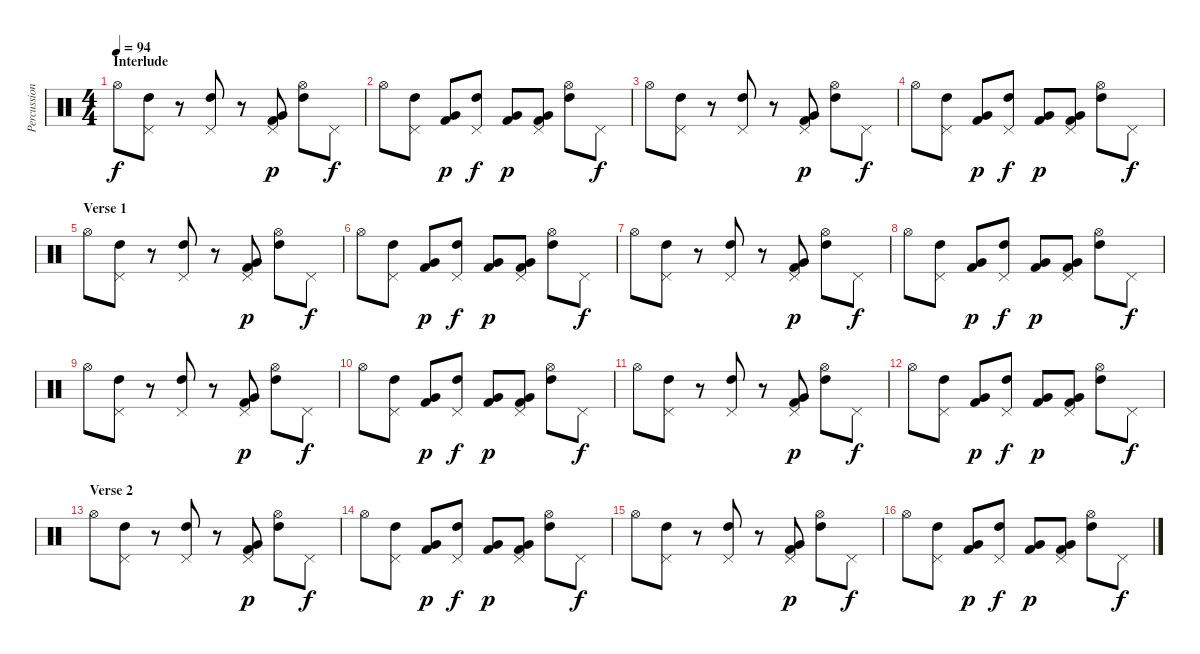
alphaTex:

\track ("Percussion" "Percussion") {instrument percussion}
\staff {score}
\articulation defaults
\ts (4 4)
\section ("" "Interlude")
\tempo 94
\clef neutral
\ks c "Hi-Hat (open)".8{dy f}
("Pedal Hi-Hat (hit)" "High Tom (hit)").8 r.8 ("Pedal Hi-Hat (hit)" "High Tom (hit)").8 r.8 ("Pedal Hi-Hat (hit)" "Very Low Tom (hit)" "Kick (hit) 2").8{dy p} ("Hi-Hat (open)" "High Tom (hit)").8 "Pedal Hi-Hat (hit)".8{dy f} |
"Hi-Hat (open)".8 ("Pedal Hi-Hat (hit)" "High Tom (hit)").8 ("Very Low Tom (hit)" "Kick (hit) 2").8{dy p} ("Pedal Hi-Hat (hit)" "High Tom (hit)").8{dy f} ("Very Low Tom (hit)" "Kick (hit) 2").8{dy p} ("Pedal Hi-Hat (hit)" "Very Low Tom (hit)" "Kick (hit) 2").8 ("Hi-Hat (open)" "High Tom (hit)").8 "Pedal Hi-Hat (hit)".8{dy f} |
"Hi-Hat (open)".8 ("Pedal Hi-Hat (hit)" "High Tom (hit)").8 r.8 ("Pedal Hi-Hat (hit)" "High Tom (hit)").8 r.8 ("Pedal Hi-Hat (hit)" "Very Low Tom (hit)" "Kick (hit) 2").8{dy p} ("Hi-Hat (open)" "High Tom (hit)").8 "Pedal Hi-Hat (hit)".8{dy f} |
"Hi-Hat (open)".8 ("Pedal Hi-Hat (hit)" "High Tom (hit)").8 ("Very Low Tom (hit)" "Kick (hit) 2").8{dy p} ("Pedal Hi-Hat (hit)" "High Tom (hit)").8{dy f} ("Very Low Tom (hit)" "Kick (hit) 2").8{dy p} ("Pedal Hi-Hat (hit)" "Very Low Tom (hit)" "Kick (hit) 2").8 ("Hi-Hat (open)" "High Tom (hit)").8 "Pedal Hi-Hat (hit)".8{dy f} |
\section ("" "Verse 1")
"Hi-Hat (open)".8 ("Pedal Hi-Hat (hit)" "High Tom (hit)").8 r.8 ("Pedal Hi-Hat (hit)" "High Tom (hit)").8 r.8 ("Pedal Hi-Hat (hit)" "Very Low Tom (hit)" "Kick (hit) 2").8{dy p} ("Hi-Hat (open)" "High Tom (hit)").8 "Pedal Hi-Hat (hit)".8{dy f} |
"Hi-Hat (open)".8 ("Pedal Hi-Hat (hit)" "High Tom (hit)").8 ("Very Low Tom (hit)" "Kick (hit) 2").8{dy p} ("Pedal Hi-Hat (hit)" "High Tom (hit)").8{dy f} ("Very Low Tom (hit)" "Kick (hit) 2").8{dy p} ("Pedal Hi-Hat (hit)" "Very Low Tom (hit)" "Kick (hit) 2").8 ("Hi-Hat (open)" "High Tom (hit)").8 "Pedal Hi-Hat (hit)".8{dy f} |
"Hi-Hat (open)".8 ("Pedal Hi-Hat (hit)" "High Tom (hit)").8 r.8 ("Pedal Hi-Hat (hit)" "High Tom (hit)").8 r.8 ("Pedal Hi-Hat (hit)" "Very Low Tom (hit)" "Kick (hit) 2").8{dy p} ("Hi-Hat (open)" "High Tom (hit)").8 "Pedal Hi-Hat (hit)".8{dy f} |
"Hi-Hat (open)".8 ("Pedal Hi-Hat (hit)" "High Tom (hit)").8 ("Very Low Tom (hit)" "Kick (hit) 2").8{dy p} ("Pedal Hi-Hat (hit)" "High Tom (hit)").8{dy f} ("Very Low Tom (hit)" "Kick (hit) 2").8{dy p} ("Pedal Hi-Hat (hit)" "Very Low Tom (hit)" "Kick (hit) 2").8 ("Hi-Hat (open)" "High Tom (hit)").8 "Pedal Hi-Hat (hit)".8{dy f} |
"Hi-Hat (open)".8 ("Pedal Hi-Hat (hit)" "High Tom (hit)").8 r.8 ("Pedal Hi-Hat (hit)" "High Tom (hit)").8 r.8 ("Pedal Hi-Hat (hit)" "Very Low Tom (hit)" "Kick (hit) 2").8{dy p} ("Hi-Hat (open)" "High Tom (hit)").8 "Pedal Hi-Hat (hit)".8{dy f} |
"Hi-Hat (open)".8 ("Pedal Hi-Hat (hit)" "High Tom (hit)").8 ("Very Low Tom (hit)" "Kick (hit) 2").8{dy p} ("Pedal Hi-Hat (hit)" "High Tom (hit)").8{dy f} ("Very Low Tom (hit)" "Kick (hit) 2").8{dy p} ("Pedal Hi-Hat (hit)" "Very Low Tom (hit)" "Kick (hit) 2").8 ("Hi-Hat (open)" "High Tom (hit)").8 "Pedal Hi-Hat (hit)".8{dy f} |
"Hi-Hat (open)".8 ("Pedal Hi-Hat (hit)" "High Tom (hit)").8 r.8 ("Pedal Hi-Hat (hit)" "High Tom (hit)").8 r.8 ("Pedal Hi-Hat (hit)" "Very Low Tom (hit)" "Kick (hit) 2").8{dy p} ("Hi-Hat (open)" "High Tom (hit)").8 "Pedal Hi-Hat (hit)".8{dy f} |
"Hi-Hat (open)".8 ("Pedal Hi-Hat (hit)" "High Tom (hit)").8 ("Very Low Tom (hit)" "Kick (hit) 2").8{dy p} ("Pedal Hi-Hat (hit)" "High Tom (hit)").8{dy f} ("Very Low Tom (hit)" "Kick (hit) 2").8{dy p} ("Pedal Hi-Hat (hit)" "Very Low Tom (hit)" "Kick (hit) 2").8 ("Hi-Hat (open)" "High Tom (hit)").8 "Pedal Hi-Hat (hit)".8{dy f} |
\section ("" "Verse 2")
"Hi-Hat (open)".8 ("Pedal Hi-Hat (hit)" "High Tom (hit)").8 r.8 ("Pedal Hi-Hat (hit)" "High Tom (hit)").8 r.8 ("Pedal Hi-Hat (hit)" "Very Low Tom (hit)" "Kick (hit) 2").8{dy p} ("Hi-Hat (open)" "High Tom (hit)").8 "Pedal Hi-Hat (hit)".8{dy f} |
"Hi-Hat (open)".8 ("Pedal Hi-Hat (hit)" "High Tom (hit)").8 ("Very Low Tom (hit)" "Kick (hit) 2").8{dy p} ("Pedal Hi-Hat (hit)" "High Tom (hit)").8{dy f} ("Very Low Tom (hit)" "Kick (hit) 2").8{dy p} ("Pedal Hi-Hat (hit)" "Very Low Tom (hit)" "Kick (hit) 2").8 ("Hi-Hat (open)" "High Tom (hit)").8 "Pedal Hi-Hat (hit)".8{dy f} |
"Hi-Hat (open)".8 ("Pedal Hi-Hat (hit)" "High Tom (hit)").8 r.8 ("Pedal Hi-Hat (hit)" "High Tom (hit)").8 r.8 ("Pedal Hi-Hat (hit)" "Very Low Tom (hit)" "Kick (hit) 2").8{dy p} ("Hi-Hat (open)" "High Tom (hit)").8 "Pedal Hi-Hat (hit)".8{dy f} |
"Hi-Hat (open)".8 ("Pedal Hi-Hat (hit)" "High Tom (hit)").8 ("Very Low Tom (hit)" "Kick (hit) 2").8{dy p} ("Pedal Hi-Hat (hit)" "High Tom (hit)").8{dy f} ("Very Low Tom (hit)" "Kick (hit) 2").8{dy p} ("Pedal Hi-Hat (hit)" "Very Low Tom (hit)" "Kick (hit) 2").8 ("Hi-Hat (open)" "High Tom (hit)").8 "Pedal Hi-Hat (hit)".8{dy f}
